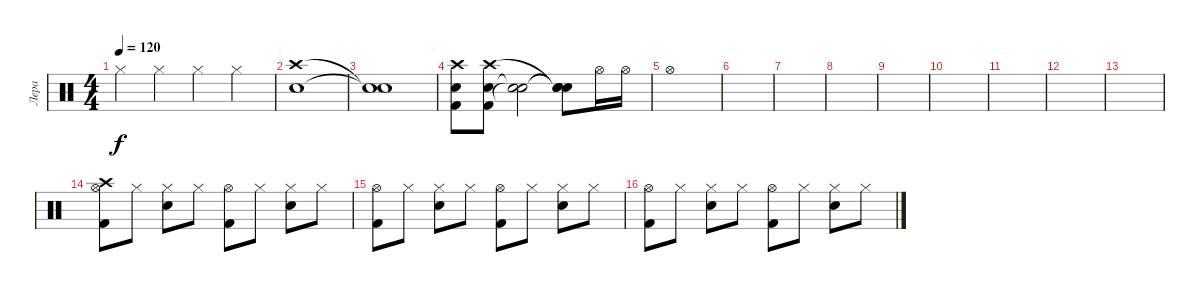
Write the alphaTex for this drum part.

\track ("Лера" "Лера") {instrument percussion}
\staff {score}
\articulation defaults
\ts (4 4)
\tempo 120
\clef neutral
\ks c "Hi-Hat (closed)".4{dy f} "Hi-Hat (closed)".4 "Hi-Hat (closed)".4 "Hi-Hat (closed)".4
|
("Crash high (hit)" "Electric Snare (hit)").1 |
("Snare (hit)"{t} "Snare (hit)"{t}).1 |
("Electric Snare (hit)" "Kick (hit) 2" "Crash high (hit)").8 ("Electric Snare (hit)" "Kick (hit) 2" "Crash high (hit)").8 ("Snare (hit)"{t} "Snare (hit)"{t}).2 ("Snare (hit)"{t} "Snare (hit)"{t} "Snare (hit)"{t}).8 "Hi-Hat (open)".16 "Hi-Hat (open)".16 |
"Hi-Hat (open)".1 |
|
|
|
|
|
|
|
|
("Hi-Hat (open)" "Kick (hit) 2" "Crash high (hit)").8 "Hi-Hat (closed)".8 ("Hi-Hat (closed)" "Electric Snare (hit)").8 "Hi-Hat (closed)".8 ("Hi-Hat (open)" "Kick (hit) 2").8 "Hi-Hat (closed)".8 ("Hi-Hat (closed)" "Electric Snare (hit)").8 "Hi-Hat (closed)".8 |
("Hi-Hat (open)" "Kick (hit) 2").8 "Hi-Hat (closed)".8 ("Hi-Hat (closed)" "Electric Snare (hit)").8 "Hi-Hat (closed)".8 ("Hi-Hat (open)" "Kick (hit) 2").8 "Hi-Hat (closed)".8 ("Hi-Hat (closed)" "Electric Snare (hit)").8 "Hi-Hat (closed)".8 |
("Hi-Hat (open)" "Kick (hit) 2").8 "Hi-Hat (closed)".8 ("Hi-Hat (closed)" "Electric Snare (hit)").8 "Hi-Hat (closed)".8 ("Hi-Hat (open)" "Kick (hit) 2").8 "Hi-Hat (closed)".8 ("Hi-Hat (closed)" "Electric Snare (hit)").8 "Hi-Hat (closed)".8
